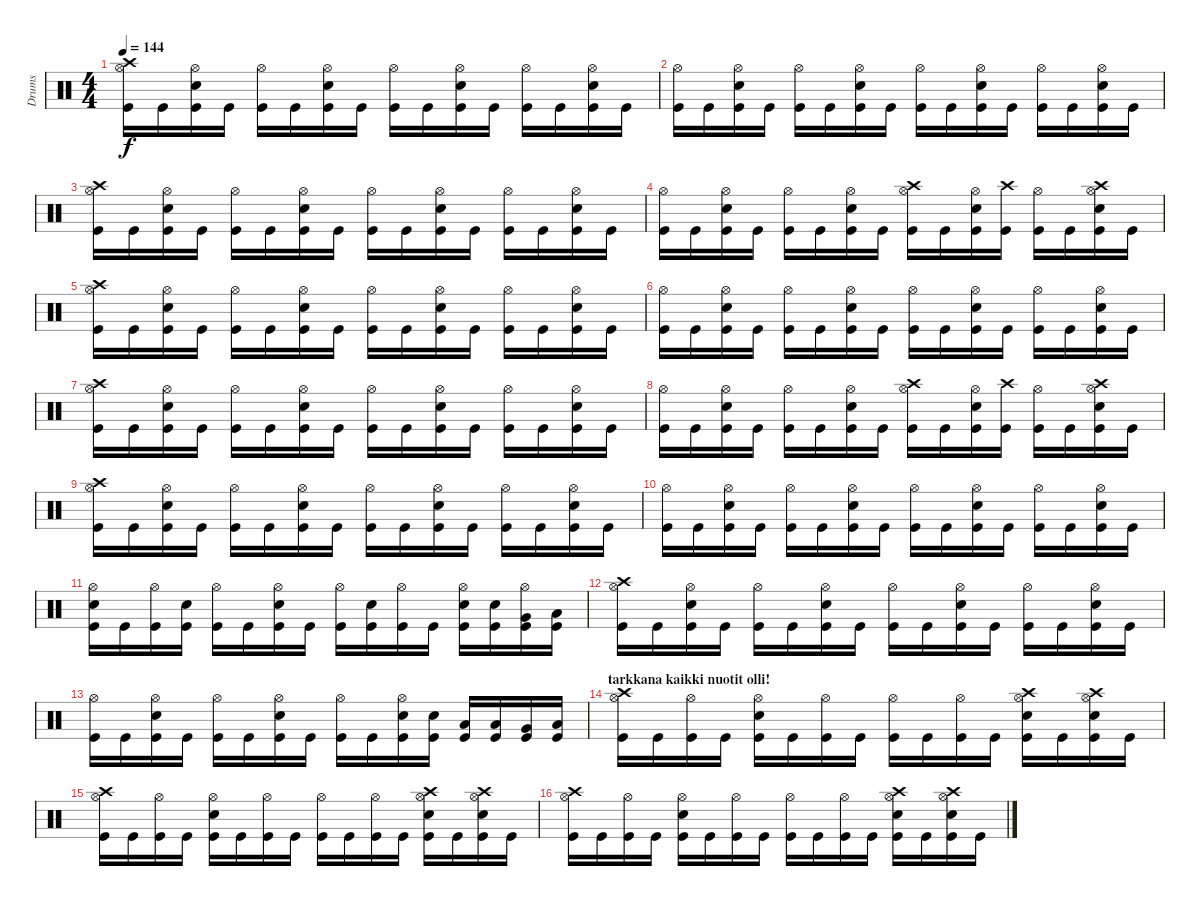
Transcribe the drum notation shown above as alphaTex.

\track ("Drums" "Drums") {instrument percussion}
\staff {score}
\articulation defaults
\ts (4 4)
\tempo 144
\clef neutral
\ks c
("Hi-Hat (open)" "Crash high (hit)" "Kick (hit)").16{dy f} "Kick (hit)".16 ("Kick (hit)" "Hi-Hat (open)" "Electric Snare (hit)").16 "Kick (hit)".16 ("Kick (hit)" "Hi-Hat (open)").16 "Kick (hit)".16 ("Kick (hit)" "Hi-Hat (open)" "Electric Snare (hit)").16 "Kick (hit)".16 ("Hi-Hat (open)" "Kick (hit)").16 "Kick (hit)".16 ("Kick (hit)" "Hi-Hat (open)" "Electric Snare (hit)").16 "Kick (hit)".16 ("Kick (hit)" "Hi-Hat (open)").16 "Kick (hit)".16 ("Kick (hit)" "Hi-Hat (open)" "Electric Snare (hit)").16 "Kick (hit)".16 |
("Hi-Hat (open)" "Kick (hit)").16 "Kick (hit)".16 ("Kick (hit)" "Hi-Hat (open)" "Electric Snare (hit)").16 "Kick (hit)".16 ("Kick (hit)" "Hi-Hat (open)").16 "Kick (hit)".16 ("Kick (hit)" "Hi-Hat (open)" "Electric Snare (hit)").16 "Kick (hit)".16 ("Hi-Hat (open)" "Kick (hit)").16 "Kick (hit)".16 ("Kick (hit)" "Hi-Hat (open)" "Electric Snare (hit)").16 "Kick (hit)".16 ("Kick (hit)" "Hi-Hat (open)").16 "Kick (hit)".16 ("Kick (hit)" "Hi-Hat (open)" "Electric Snare (hit)").16 "Kick (hit)".16 |
("Hi-Hat (open)" "Crash high (hit)" "Kick (hit)").16 "Kick (hit)".16 ("Kick (hit)" "Hi-Hat (open)" "Electric Snare (hit)").16 "Kick (hit)".16 ("Kick (hit)" "Hi-Hat (open)").16 "Kick (hit)".16 ("Kick (hit)" "Hi-Hat (open)" "Electric Snare (hit)").16 "Kick (hit)".16 ("Hi-Hat (open)" "Kick (hit)").16 "Kick (hit)".16 ("Kick (hit)" "Hi-Hat (open)" "Electric Snare (hit)").16 "Kick (hit)".16 ("Kick (hit)" "Hi-Hat (open)").16 "Kick (hit)".16 ("Kick (hit)" "Hi-Hat (open)" "Electric Snare (hit)").16 "Kick (hit)".16 |
("Hi-Hat (open)" "Kick (hit)").16 "Kick (hit)".16 ("Kick (hit)" "Hi-Hat (open)" "Electric Snare (hit)").16 "Kick (hit)".16 ("Kick (hit)" "Hi-Hat (open)").16 "Kick (hit)".16 ("Kick (hit)" "Hi-Hat (open)" "Electric Snare (hit)").16 "Kick (hit)".16 ("Crash high (hit)" "Hi-Hat (open)" "Kick (hit)").16 "Kick (hit)".16 ("Kick (hit)" "Hi-Hat (open)" "Electric Snare (hit)").16 ("Crash high (hit)" "Kick (hit)").16 ("Kick (hit)" "Hi-Hat (open)").16 "Kick (hit)".16 ("Crash high (hit)" "Kick (hit)" "Hi-Hat (open)" "Electric Snare (hit)").16 "Kick (hit)".16 |
("Hi-Hat (open)" "Crash high (hit)" "Kick (hit)").16 "Kick (hit)".16 ("Kick (hit)" "Hi-Hat (open)" "Electric Snare (hit)").16 "Kick (hit)".16 ("Kick (hit)" "Hi-Hat (open)").16 "Kick (hit)".16 ("Kick (hit)" "Hi-Hat (open)" "Electric Snare (hit)").16 "Kick (hit)".16 ("Hi-Hat (open)" "Kick (hit)").16 "Kick (hit)".16 ("Kick (hit)" "Hi-Hat (open)" "Electric Snare (hit)").16 "Kick (hit)".16 ("Kick (hit)" "Hi-Hat (open)").16 "Kick (hit)".16 ("Kick (hit)" "Hi-Hat (open)" "Electric Snare (hit)").16 "Kick (hit)".16 |
("Hi-Hat (open)" "Kick (hit)").16 "Kick (hit)".16 ("Kick (hit)" "Hi-Hat (open)" "Electric Snare (hit)").16 "Kick (hit)".16 ("Kick (hit)" "Hi-Hat (open)").16 "Kick (hit)".16 ("Kick (hit)" "Hi-Hat (open)" "Electric Snare (hit)").16 "Kick (hit)".16 ("Hi-Hat (open)" "Kick (hit)").16 "Kick (hit)".16 ("Kick (hit)" "Hi-Hat (open)" "Electric Snare (hit)").16 "Kick (hit)".16 ("Kick (hit)" "Hi-Hat (open)").16 "Kick (hit)".16 ("Kick (hit)" "Hi-Hat (open)" "Electric Snare (hit)").16 "Kick (hit)".16 |
("Hi-Hat (open)" "Crash high (hit)" "Kick (hit)").16 "Kick (hit)".16 ("Kick (hit)" "Hi-Hat (open)" "Electric Snare (hit)").16 "Kick (hit)".16 ("Kick (hit)" "Hi-Hat (open)").16 "Kick (hit)".16 ("Kick (hit)" "Hi-Hat (open)" "Electric Snare (hit)").16 "Kick (hit)".16 ("Hi-Hat (open)" "Kick (hit)").16 "Kick (hit)".16 ("Kick (hit)" "Hi-Hat (open)" "Electric Snare (hit)").16 "Kick (hit)".16 ("Kick (hit)" "Hi-Hat (open)").16 "Kick (hit)".16 ("Kick (hit)" "Hi-Hat (open)" "Electric Snare (hit)").16 "Kick (hit)".16 |
("Hi-Hat (open)" "Kick (hit)").16 "Kick (hit)".16 ("Kick (hit)" "Hi-Hat (open)" "Electric Snare (hit)").16 "Kick (hit)".16 ("Kick (hit)" "Hi-Hat (open)").16 "Kick (hit)".16 ("Kick (hit)" "Hi-Hat (open)" "Electric Snare (hit)").16 "Kick (hit)".16 ("Crash high (hit)" "Hi-Hat (open)" "Kick (hit)").16 "Kick (hit)".16 ("Kick (hit)" "Hi-Hat (open)" "Electric Snare (hit)").16 ("Crash high (hit)" "Kick (hit)").16 ("Kick (hit)" "Hi-Hat (open)").16 "Kick (hit)".16 ("Crash high (hit)" "Kick (hit)" "Hi-Hat (open)" "Electric Snare (hit)").16 "Kick (hit)".16 |
("Hi-Hat (open)" "Crash high (hit)" "Kick (hit)").16 "Kick (hit)".16 ("Kick (hit)" "Hi-Hat (open)" "Electric Snare (hit)").16 "Kick (hit)".16 ("Kick (hit)" "Hi-Hat (open)").16 "Kick (hit)".16 ("Kick (hit)" "Hi-Hat (open)" "Electric Snare (hit)").16 "Kick (hit)".16 ("Hi-Hat (open)" "Kick (hit)").16 "Kick (hit)".16 ("Kick (hit)" "Hi-Hat (open)" "Electric Snare (hit)").16 "Kick (hit)".16 ("Kick (hit)" "Hi-Hat (open)").16 "Kick (hit)".16 ("Kick (hit)" "Hi-Hat (open)" "Electric Snare (hit)").16 "Kick (hit)".16 |
("Hi-Hat (open)" "Kick (hit)").16 "Kick (hit)".16 ("Kick (hit)" "Hi-Hat (open)" "Electric Snare (hit)").16 "Kick (hit)".16 ("Kick (hit)" "Hi-Hat (open)").16 "Kick (hit)".16 ("Kick (hit)" "Hi-Hat (open)" "Electric Snare (hit)").16 "Kick (hit)".16 ("Hi-Hat (open)" "Kick (hit)").16 "Kick (hit)".16 ("Kick (hit)" "Hi-Hat (open)" "Electric Snare (hit)").16 "Kick (hit)".16 ("Kick (hit)" "Hi-Hat (open)").16 "Kick (hit)".16 ("Kick (hit)" "Hi-Hat (open)" "Electric Snare (hit)").16 "Kick (hit)".16 |
("Electric Snare (hit)" "Hi-Hat (open)" "Kick (hit)").16 "Kick (hit)".16 ("Kick (hit)" "Hi-Hat (open)").16 ("Electric Snare (hit)" "Kick (hit)").16 ("Kick (hit)" "Hi-Hat (open)").16 "Kick (hit)".16 ("Electric Snare (hit)" "Kick (hit)" "Hi-Hat (open)").16 "Kick (hit)".16 ("Hi-Hat (open)" "Kick (hit)").16 ("Electric Snare (hit)" "Kick (hit)").16 ("Kick (hit)" "Hi-Hat (open)").16 "Kick (hit)".16 ("Electric Snare (hit)" "Kick (hit)" "Hi-Hat (open)").16 ("Electric Snare (hit)" "Kick (hit)").16 ("Very Low Tom (hit)" "Kick (hit)" "Hi-Hat (open)").16 ("Low Floor Tom (hit)" "Kick (hit)").16 |
("Crash high (hit)" "Hi-Hat (open)" "Kick (hit)").16 "Kick (hit)".16 ("Kick (hit)" "Hi-Hat (open)" "Electric Snare (hit)").16 "Kick (hit)".16 ("Kick (hit)" "Hi-Hat (open)").16 "Kick (hit)".16 ("Kick (hit)" "Hi-Hat (open)" "Electric Snare (hit)").16 "Kick (hit)".16 ("Hi-Hat (open)" "Kick (hit)").16 "Kick (hit)".16 ("Kick (hit)" "Hi-Hat (open)" "Electric Snare (hit)").16 "Kick (hit)".16 ("Kick (hit)" "Hi-Hat (open)").16 "Kick (hit)".16 ("Kick (hit)" "Hi-Hat (open)" "Electric Snare (hit)").16 "Kick (hit)".16 |
("Hi-Hat (open)" "Kick (hit)").16 "Kick (hit)".16 ("Kick (hit)" "Hi-Hat (open)" "Electric Snare (hit)").16 "Kick (hit)".16 ("Kick (hit)" "Hi-Hat (open)").16 "Kick (hit)".16 ("Kick (hit)" "Hi-Hat (open)" "Electric Snare (hit)").16 "Kick (hit)".16 ("Hi-Hat (open)" "Kick (hit)").16 "Kick (hit)".16 ("Kick (hit)" "Hi-Hat (open)" "Electric Snare (hit)").16 ("Electric Snare (hit)" "Kick (hit)").16 ("Low Tom (hit)" "Kick (hit)").16 ("Low Tom (hit)" "Kick (hit)").16 ("Very Low Tom (hit)" "Kick (hit)").16 ("Low Floor Tom (hit)" "Kick (hit)").16 |
\section ("" "tarkkana kaikki nuotit olli!")
("Crash high (hit)" "Hi-Hat (open)" "Kick (hit)").16 "Kick (hit)".16 ("Kick (hit)" "Hi-Hat (open)").16 "Kick (hit)".16 ("Electric Snare (hit)" "Kick (hit)" "Hi-Hat (open)").16 "Kick (hit)".16 ("Kick (hit)" "Hi-Hat (open)").16 "Kick (hit)".16 ("Hi-Hat (open)" "Kick (hit)").16 "Kick (hit)".16 ("Kick (hit)" "Hi-Hat (open)").16 "Kick (hit)".16 ("Crash high (hit)" "Electric Snare (hit)" "Kick (hit)" "Hi-Hat (open)").16 "Kick (hit)".16 ("Crash high (hit)" "Electric Snare (hit)" "Kick (hit)" "Hi-Hat (open)").16 "Kick (hit)".16 |
("Crash high (hit)" "Hi-Hat (open)" "Kick (hit)").16 "Kick (hit)".16 ("Kick (hit)" "Hi-Hat (open)").16 "Kick (hit)".16 ("Electric Snare (hit)" "Kick (hit)" "Hi-Hat (open)").16 "Kick (hit)".16 ("Kick (hit)" "Hi-Hat (open)").16 "Kick (hit)".16 ("Hi-Hat (open)" "Kick (hit)").16 "Kick (hit)".16 ("Kick (hit)" "Hi-Hat (open)").16 "Kick (hit)".16 ("Crash high (hit)" "Electric Snare (hit)" "Kick (hit)" "Hi-Hat (open)").16 "Kick (hit)".16 ("Crash high (hit)" "Electric Snare (hit)" "Kick (hit)" "Hi-Hat (open)").16 "Kick (hit)".16 |
("Crash high (hit)" "Hi-Hat (open)" "Kick (hit)").16 "Kick (hit)".16 ("Kick (hit)" "Hi-Hat (open)").16 "Kick (hit)".16 ("Electric Snare (hit)" "Kick (hit)" "Hi-Hat (open)").16 "Kick (hit)".16 ("Kick (hit)" "Hi-Hat (open)").16 "Kick (hit)".16 ("Hi-Hat (open)" "Kick (hit)").16 "Kick (hit)".16 ("Kick (hit)" "Hi-Hat (open)").16 "Kick (hit)".16 ("Crash high (hit)" "Electric Snare (hit)" "Kick (hit)" "Hi-Hat (open)").16 "Kick (hit)".16 ("Crash high (hit)" "Electric Snare (hit)" "Kick (hit)" "Hi-Hat (open)").16 "Kick (hit)".16
